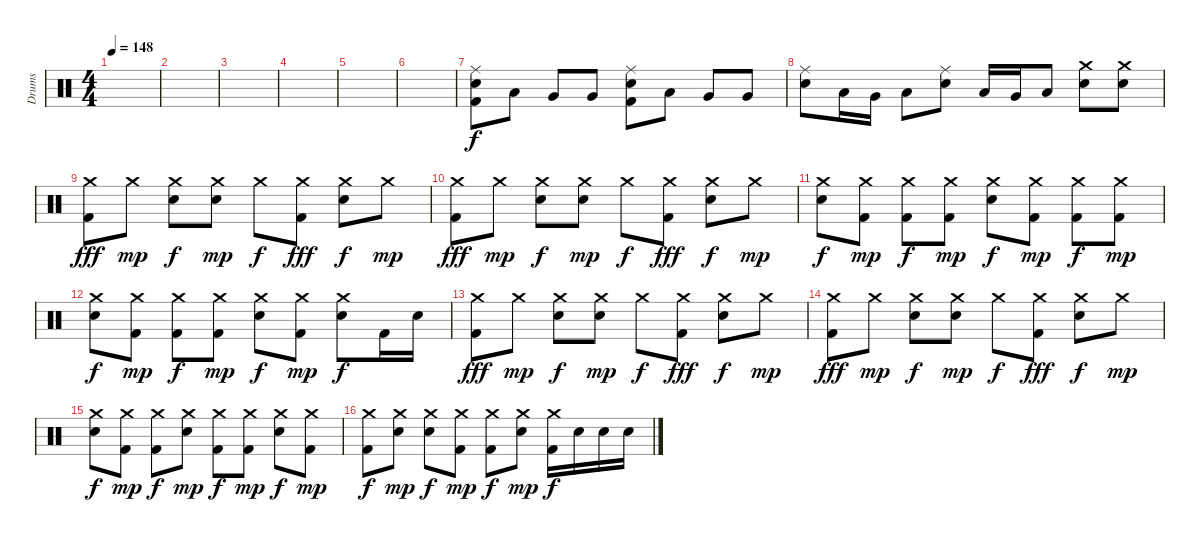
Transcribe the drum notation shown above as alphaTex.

\track ("Drums" "Drums") {instrument percussion}
\staff {score}
\articulation defaults
\ts (4 4)
\tempo 148
\clef neutral
\ks c
|
|
|
|
|
|
("Ride (middle)" "Snare (hit) 2" "Kick (hit) 2").8 "Low Tom (hit)".8 "Very Low Tom (hit)".8 "Very Low Tom (hit)".8 ("Ride (middle)" "Snare (hit) 2" "Kick (hit) 2").8 "Low Tom (hit)".8 "Very Low Tom (hit)".8 "Very Low Tom (hit)".8 |
("Ride (middle)" "Snare (hit) 2").8 "Low Tom (hit)".16 "Very Low Tom (hit)".16 "Low Floor Tom (hit)".8 ("Ride (middle)" "Snare (hit) 2").8 "Low Tom (hit)".16 "Very Low Tom (hit)".16 "Low Floor Tom (hit)".8 ("Crash medium (hit)" "Snare (hit) 2").8 ("Crash medium (hit)" "Snare (hit) 2").8 |
("Crash medium (hit)" "Kick (hit) 2").8{dy fff} "Crash medium (hit)".8{dy mp} ("Crash medium (hit)" "Snare (hit) 2").8{dy f} ("Crash medium (hit)" "Snare (hit) 2").8{dy mp} "Crash medium (hit)".8{dy f} ("Crash medium (hit)" "Kick (hit) 2").8{dy fff} ("Crash medium (hit)" "Snare (hit) 2").8{dy f} "Crash medium (hit)".8{dy mp} |
("Crash medium (hit)" "Kick (hit) 2").8{dy fff} "Crash medium (hit)".8{dy mp} ("Crash medium (hit)" "Snare (hit) 2").8{dy f} ("Crash medium (hit)" "Snare (hit) 2").8{dy mp} "Crash medium (hit)".8{dy f} ("Crash medium (hit)" "Kick (hit) 2").8{dy fff} ("Crash medium (hit)" "Snare (hit) 2").8{dy f} "Crash medium (hit)".8{dy mp} |
("Crash medium (hit)" "Snare (hit) 2").8{dy f} ("Crash medium (hit)" "Kick (hit) 2").8{dy mp} ("Crash medium (hit)" "Kick (hit) 2").8{dy f} ("Crash medium (hit)" "Kick (hit) 2").8{dy mp} ("Crash medium (hit)" "Snare (hit) 2").8{dy f} ("Crash medium (hit)" "Kick (hit) 2").8{dy mp} ("Crash medium (hit)" "Kick (hit) 2").8{dy f} ("Crash medium (hit)" "Kick (hit) 2").8{dy mp} |
("Crash medium (hit)" "Snare (hit) 2").8{dy f} ("Crash medium (hit)" "Kick (hit) 2").8{dy mp} ("Crash medium (hit)" "Kick (hit) 2").8{dy f} ("Crash medium (hit)" "Kick (hit) 2").8{dy mp} ("Crash medium (hit)" "Snare (hit) 2").8{dy f} ("Crash medium (hit)" "Kick (hit) 2").8{dy mp} ("Crash medium (hit)" "Snare (hit) 2").8{dy f} "Kick (hit) 2".16 "Snare (hit) 2".16 |
("Crash medium (hit)" "Kick (hit) 2").8{dy fff} "Crash medium (hit)".8{dy mp} ("Crash medium (hit)" "Snare (hit) 2").8{dy f} ("Crash medium (hit)" "Snare (hit) 2").8{dy mp} "Crash medium (hit)".8{dy f} ("Crash medium (hit)" "Kick (hit) 2").8{dy fff} ("Crash medium (hit)" "Snare (hit) 2").8{dy f} "Crash medium (hit)".8{dy mp} |
("Crash medium (hit)" "Kick (hit) 2").8{dy fff} "Crash medium (hit)".8{dy mp} ("Crash medium (hit)" "Snare (hit) 2").8{dy f} ("Crash medium (hit)" "Snare (hit) 2").8{dy mp} "Crash medium (hit)".8{dy f} ("Crash medium (hit)" "Kick (hit) 2").8{dy fff} ("Crash medium (hit)" "Snare (hit) 2").8{dy f} "Crash medium (hit)".8{dy mp} |
("Crash medium (hit)" "Snare (hit) 2").8{dy f} ("Crash medium (hit)" "Kick (hit) 2").8{dy mp} ("Crash medium (hit)" "Kick (hit) 2").8{dy f} ("Crash medium (hit)" "Snare (hit) 2").8{dy mp} ("Crash medium (hit)" "Kick (hit) 2").8{dy f} ("Crash medium (hit)" "Kick (hit) 2").8{dy mp} ("Crash medium (hit)" "Snare (hit) 2").8{dy f} ("Crash medium (hit)" "Kick (hit) 2").8{dy mp} |
("Crash medium (hit)" "Kick (hit) 2").8{dy f} ("Crash medium (hit)" "Snare (hit) 2").8{dy mp} ("Crash medium (hit)" "Snare (hit) 2").8{dy f} ("Crash medium (hit)" "Kick (hit) 2").8{dy mp} ("Crash medium (hit)" "Kick (hit) 2").8{dy f} ("Crash medium (hit)" "Snare (hit) 2").8{dy mp} ("Crash medium (hit)" "Kick (hit) 2").16{dy f} "Snare (hit) 2".16 "Snare (hit) 2".16 "Snare (hit) 2".16
